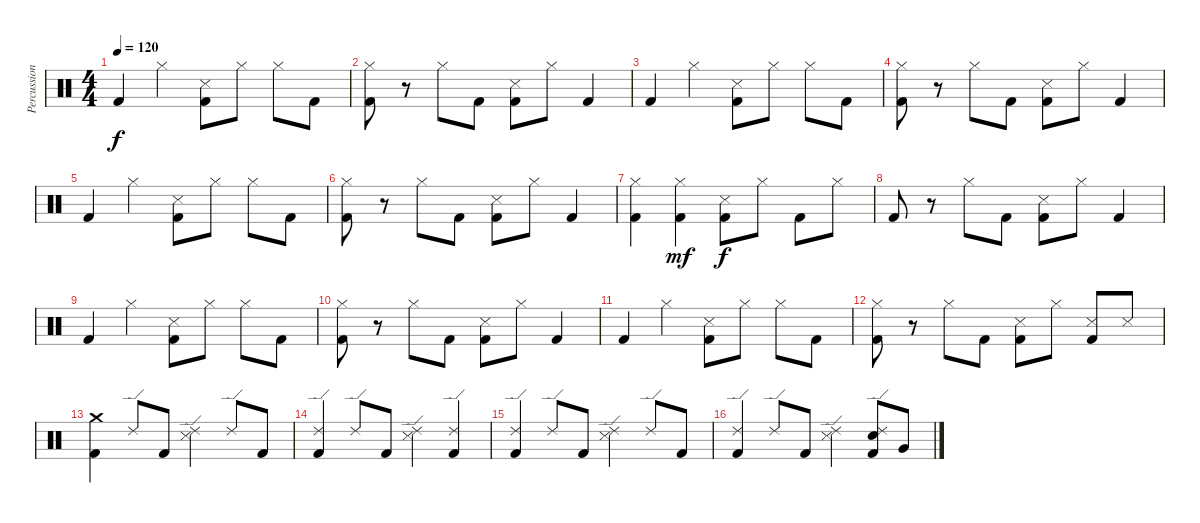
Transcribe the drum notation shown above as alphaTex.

\track ("Percussion" "Percussion") {instrument percussion}
\staff {score}
\articulation defaults
\ts (4 4)
\tempo 120
\clef neutral
\ks c "Kick (hit) 2".4{dy f} "Hi-Hat (closed)".4
("Snare (side stick) 3" "Kick (hit) 2").8 "Hi-Hat (closed)".8 "Hi-Hat (closed)".8 "Kick (hit) 2".8 |
("Hi-Hat (closed)" "Kick (hit) 2").8 r.8 "Hi-Hat (closed)".8 "Kick (hit) 2".8 ("Snare (side stick) 3" "Kick (hit) 2").8 "Hi-Hat (closed)".8 "Kick (hit) 2".4 |
"Kick (hit) 2".4 "Hi-Hat (closed)".4 ("Snare (side stick) 3" "Kick (hit) 2").8 "Hi-Hat (closed)".8 "Hi-Hat (closed)".8 "Kick (hit) 2".8 |
("Hi-Hat (closed)" "Kick (hit) 2").8 r.8 "Hi-Hat (closed)".8 "Kick (hit) 2".8 ("Snare (side stick) 3" "Kick (hit) 2").8 "Hi-Hat (closed)".8 "Kick (hit) 2".4 |
"Kick (hit) 2".4 "Hi-Hat (closed)".4 ("Snare (side stick) 3" "Kick (hit) 2").8 "Hi-Hat (closed)".8 "Hi-Hat (closed)".8 "Kick (hit) 2".8 |
("Hi-Hat (closed)" "Kick (hit) 2").8 r.8 "Hi-Hat (closed)".8 "Kick (hit) 2".8 ("Snare (side stick) 3" "Kick (hit) 2").8 "Hi-Hat (closed)".8 "Kick (hit) 2".4 |
("Hi-Hat (closed)" "Kick (hit) 2").4 ("Hi-Hat (closed)" "Kick (hit) 2").4{dy mf} ("Snare (side stick) 3" "Kick (hit) 2").8{dy f} "Hi-Hat (closed)".8 "Kick (hit) 2".8 "Hi-Hat (closed)".8 |
"Kick (hit) 2".8 r.8 "Hi-Hat (closed)".8 "Kick (hit) 2".8 ("Snare (side stick) 3" "Kick (hit) 2").8 "Hi-Hat (closed)".8 "Kick (hit) 2".4 |
"Kick (hit) 2".4 "Hi-Hat (closed)".4 ("Snare (side stick) 3" "Kick (hit) 2").8 "Hi-Hat (closed)".8 "Hi-Hat (closed)".8 "Kick (hit) 2".8 |
("Hi-Hat (closed)" "Kick (hit) 2").8 r.8 "Hi-Hat (closed)".8 "Kick (hit) 2".8 ("Snare (side stick) 3" "Kick (hit) 2").8 "Hi-Hat (closed)".8 "Kick (hit) 2".4 |
"Kick (hit) 2".4 "Hi-Hat (closed)".4 ("Snare (side stick) 3" "Kick (hit) 2").8 "Hi-Hat (closed)".8 "Hi-Hat (closed)".8 "Kick (hit) 2".8 |
("Hi-Hat (closed)" "Kick (hit) 2").8 r.8 "Hi-Hat (closed)".8 "Kick (hit) 2".8 ("Snare (side stick) 3" "Kick (hit) 2").8 "Hi-Hat (closed)".8 ("Snare (side stick) 3" "Kick (hit) 2").8 "Snare (side stick) 3".8 |
("Crash medium (hit)" "Kick (hit) 2").4 "Ride (edge) 2".8 "Kick (hit) 2".8 ("Ride (edge) 2" "Snare (side stick) 3").4 "Ride (edge) 2".8 "Kick (hit) 2".8 |
("Ride (edge) 2" "Kick (hit) 2").4 "Ride (edge) 2".8 "Kick (hit) 2".8 ("Ride (edge) 2" "Snare (side stick) 3").4 ("Ride (edge) 2" "Kick (hit) 2").4 |
("Ride (edge) 2" "Kick (hit) 2").4 "Ride (edge) 2".8 "Kick (hit) 2".8 ("Ride (edge) 2" "Snare (side stick) 3").4 "Ride (edge) 2".8 "Kick (hit) 2".8 |
("Ride (edge) 2" "Kick (hit) 2").4 "Ride (edge) 2".8 "Kick (hit) 2".8 ("Ride (edge) 2" "Snare (side stick) 3").4 ("Ride (edge) 2" "Snare (hit) 2" "Kick (hit) 2").8 "Very Low Tom (hit)".8
